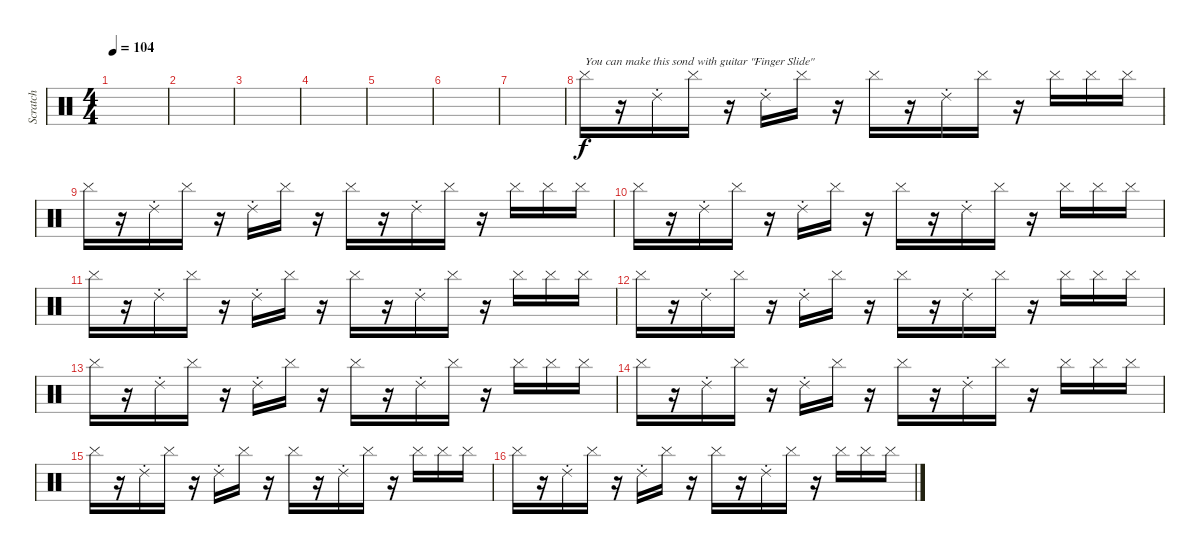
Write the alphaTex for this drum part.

\track ("Scratch" "Scratch") {instrument percussion}
\staff {score}
\articulation defaults
\ts (4 4)
\tempo 104
\clef neutral
\ks c
|
|
|
|
|
|
|
"Cymbal (hit)".16{txt "You can make this sond with guitar \"Finger Slide\""} r.16 "Ride (choke) 2".16 "Cymbal (hit)".16 r.16 "Ride (choke) 2".16 "Cymbal (hit)".16 r.16 "Cymbal (hit)".16 r.16 "Ride (choke) 2".16 "Cymbal (hit)".16 r.16 "Cymbal (hit)".16 "Cymbal (hit)".16 "Cymbal (hit)".16 |
"Cymbal (hit)".16 r.16 "Ride (choke) 2".16 "Cymbal (hit)".16 r.16 "Ride (choke) 2".16 "Cymbal (hit)".16 r.16 "Cymbal (hit)".16 r.16 "Ride (choke) 2".16 "Cymbal (hit)".16 r.16 "Cymbal (hit)".16 "Cymbal (hit)".16 "Cymbal (hit)".16 |
"Cymbal (hit)".16 r.16 "Ride (choke) 2".16 "Cymbal (hit)".16 r.16 "Ride (choke) 2".16 "Cymbal (hit)".16 r.16 "Cymbal (hit)".16 r.16 "Ride (choke) 2".16 "Cymbal (hit)".16 r.16 "Cymbal (hit)".16 "Cymbal (hit)".16 "Cymbal (hit)".16 |
"Cymbal (hit)".16 r.16 "Ride (choke) 2".16 "Cymbal (hit)".16 r.16 "Ride (choke) 2".16 "Cymbal (hit)".16 r.16 "Cymbal (hit)".16 r.16 "Ride (choke) 2".16 "Cymbal (hit)".16 r.16 "Cymbal (hit)".16 "Cymbal (hit)".16 "Cymbal (hit)".16 |
"Cymbal (hit)".16 r.16 "Ride (choke) 2".16 "Cymbal (hit)".16 r.16 "Ride (choke) 2".16 "Cymbal (hit)".16 r.16 "Cymbal (hit)".16 r.16 "Ride (choke) 2".16 "Cymbal (hit)".16 r.16 "Cymbal (hit)".16 "Cymbal (hit)".16 "Cymbal (hit)".16 |
"Cymbal (hit)".16 r.16 "Ride (choke) 2".16 "Cymbal (hit)".16 r.16 "Ride (choke) 2".16 "Cymbal (hit)".16 r.16 "Cymbal (hit)".16 r.16 "Ride (choke) 2".16 "Cymbal (hit)".16 r.16 "Cymbal (hit)".16 "Cymbal (hit)".16 "Cymbal (hit)".16 |
"Cymbal (hit)".16 r.16 "Ride (choke) 2".16 "Cymbal (hit)".16 r.16 "Ride (choke) 2".16 "Cymbal (hit)".16 r.16 "Cymbal (hit)".16 r.16 "Ride (choke) 2".16 "Cymbal (hit)".16 r.16 "Cymbal (hit)".16 "Cymbal (hit)".16 "Cymbal (hit)".16 |
"Cymbal (hit)".16 r.16 "Ride (choke) 2".16 "Cymbal (hit)".16 r.16 "Ride (choke) 2".16 "Cymbal (hit)".16 r.16 "Cymbal (hit)".16 r.16 "Ride (choke) 2".16 "Cymbal (hit)".16 r.16 "Cymbal (hit)".16 "Cymbal (hit)".16 "Cymbal (hit)".16 |
"Cymbal (hit)".16 r.16 "Ride (choke) 2".16 "Cymbal (hit)".16 r.16 "Ride (choke) 2".16 "Cymbal (hit)".16 r.16 "Cymbal (hit)".16 r.16 "Ride (choke) 2".16 "Cymbal (hit)".16 r.16 "Cymbal (hit)".16 "Cymbal (hit)".16 "Cymbal (hit)".16
